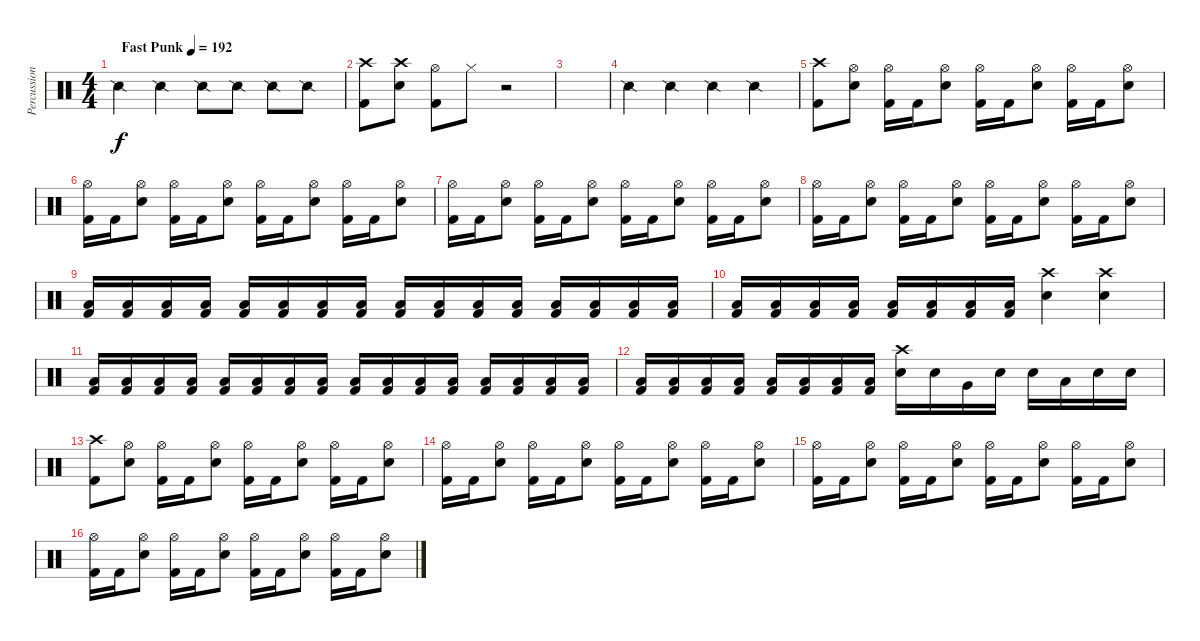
\track ("Percussion" "Percussion") {instrument percussion}
\staff {score}
\articulation defaults
\ts (4 4)
\tempo (192 "Fast Punk")
\clef neutral
\ks c "Snare (side stick) 2".4{dy f} "Snare (side stick) 2".4 "Snare (side stick) 2".8 "Snare (side stick) 2".8 "Snare (side stick) 2".8 "Snare (side stick) 2".8
|
("Crash high (hit)" "Kick (hit) 2").8 ("Crash high (hit)" "Snare (hit) 2").8 ("Hi-Hat (open)" "Kick (hit) 2").8 "Hi-Hat (closed)".8 r.2 |
|
"Snare (side stick) 2".4 "Snare (side stick) 2".4 "Snare (side stick) 2".4 "Snare (side stick) 2".4 |
("Crash high (hit)" "Kick (hit) 2").8 ("Hi-Hat (open)" "Snare (hit) 2").8 ("Hi-Hat (open)" "Kick (hit) 2").16 "Kick (hit) 2".16 ("Hi-Hat (open)" "Snare (hit) 2").8 ("Hi-Hat (open)" "Kick (hit) 2").16 "Kick (hit) 2".16 ("Hi-Hat (open)" "Snare (hit) 2").8 ("Hi-Hat (open)" "Kick (hit) 2").16 "Kick (hit) 2".16 ("Hi-Hat (open)" "Snare (hit) 2").8 |
("Hi-Hat (open)" "Kick (hit) 2").16 "Kick (hit) 2".16 ("Hi-Hat (open)" "Snare (hit) 2").8 ("Hi-Hat (open)" "Kick (hit) 2").16 "Kick (hit) 2".16 ("Hi-Hat (open)" "Snare (hit) 2").8 ("Hi-Hat (open)" "Kick (hit) 2").16 "Kick (hit) 2".16 ("Hi-Hat (open)" "Snare (hit) 2").8 ("Hi-Hat (open)" "Kick (hit) 2").16 "Kick (hit) 2".16 ("Hi-Hat (open)" "Snare (hit) 2").8 |
("Hi-Hat (open)" "Kick (hit) 2").16 "Kick (hit) 2".16 ("Hi-Hat (open)" "Snare (hit) 2").8 ("Hi-Hat (open)" "Kick (hit) 2").16 "Kick (hit) 2".16 ("Hi-Hat (open)" "Snare (hit) 2").8 ("Hi-Hat (open)" "Kick (hit) 2").16 "Kick (hit) 2".16 ("Hi-Hat (open)" "Snare (hit) 2").8 ("Hi-Hat (open)" "Kick (hit) 2").16 "Kick (hit) 2".16 ("Hi-Hat (open)" "Snare (hit) 2").8 |
("Hi-Hat (open)" "Kick (hit) 2").16 "Kick (hit) 2".16 ("Hi-Hat (open)" "Snare (hit) 2").8 ("Hi-Hat (open)" "Kick (hit) 2").16 "Kick (hit) 2".16 ("Hi-Hat (open)" "Snare (hit) 2").8 ("Hi-Hat (open)" "Kick (hit) 2").16 "Kick (hit) 2".16 ("Hi-Hat (open)" "Snare (hit) 2").8 ("Hi-Hat (open)" "Kick (hit) 2").16 "Kick (hit) 2".16 ("Hi-Hat (open)" "Snare (hit) 2").8 |
("Low Floor Tom (hit)" "Kick (hit) 2").16 ("Low Floor Tom (hit)" "Kick (hit) 2").16 ("Low Floor Tom (hit)" "Kick (hit) 2").16 ("Low Tom (hit)" "Kick (hit) 2").16 ("Low Floor Tom (hit)" "Kick (hit) 2").16 ("Low Floor Tom (hit)" "Kick (hit) 2").16 ("Low Floor Tom (hit)" "Kick (hit) 2").16 ("Low Tom (hit)" "Kick (hit) 2").16 ("Low Floor Tom (hit)" "Kick (hit) 2").16 ("Low Floor Tom (hit)" "Kick (hit) 2").16 ("Low Floor Tom (hit)" "Kick (hit) 2").16 ("Low Tom (hit)" "Kick (hit) 2").16 ("Low Floor Tom (hit)" "Kick (hit) 2").16 ("Low Floor Tom (hit)" "Kick (hit) 2").16 ("Low Floor Tom (hit)" "Kick (hit) 2").16 ("Low Tom (hit)" "Kick (hit) 2").16 |
("Low Floor Tom (hit)" "Kick (hit) 2").16 ("Low Floor Tom (hit)" "Kick (hit) 2").16 ("Low Floor Tom (hit)" "Kick (hit) 2").16 ("Low Tom (hit)" "Kick (hit) 2").16 ("Low Floor Tom (hit)" "Kick (hit) 2").16 ("Low Floor Tom (hit)" "Kick (hit) 2").16 ("Low Floor Tom (hit)" "Kick (hit) 2").16 ("Low Tom (hit)" "Kick (hit) 2").16 ("Crash high (hit)" "Snare (hit) 2").4 ("Crash high (hit)" "Snare (hit) 2").4 |
("Low Floor Tom (hit)" "Kick (hit) 2").16 ("Low Floor Tom (hit)" "Kick (hit) 2").16 ("Low Floor Tom (hit)" "Kick (hit) 2").16 ("Low Tom (hit)" "Kick (hit) 2").16 ("Low Floor Tom (hit)" "Kick (hit) 2").16 ("Low Floor Tom (hit)" "Kick (hit) 2").16 ("Low Floor Tom (hit)" "Kick (hit) 2").16 ("Low Tom (hit)" "Kick (hit) 2").16 ("Low Floor Tom (hit)" "Kick (hit) 2").16 ("Low Floor Tom (hit)" "Kick (hit) 2").16 ("Low Floor Tom (hit)" "Kick (hit) 2").16 ("Low Tom (hit)" "Kick (hit) 2").16 ("Low Floor Tom (hit)" "Kick (hit) 2").16 ("Low Floor Tom (hit)" "Kick (hit) 2").16 ("Low Floor Tom (hit)" "Kick (hit) 2").16 ("Low Tom (hit)" "Kick (hit) 2").16 |
("Low Floor Tom (hit)" "Kick (hit) 2").16 ("Low Floor Tom (hit)" "Kick (hit) 2").16 ("Low Floor Tom (hit)" "Kick (hit) 2").16 ("Low Tom (hit)" "Kick (hit) 2").16 ("Low Floor Tom (hit)" "Kick (hit) 2").16 ("Low Floor Tom (hit)" "Kick (hit) 2").16 ("Low Floor Tom (hit)" "Kick (hit) 2").16 ("Low Tom (hit)" "Kick (hit) 2").16 ("Crash high (hit)" "Snare (hit) 2").16 "Snare (hit) 2".16 "Very Low Tom (hit)".16 "Snare (hit) 2".16 "Snare (hit) 2".16 "Low Tom (hit)".16 "Snare (hit) 2".16 "Snare (hit) 2".16 |
("Crash high (hit)" "Kick (hit) 2").8 ("Hi-Hat (open)" "Snare (hit) 2").8 ("Hi-Hat (open)" "Kick (hit) 2").16 "Kick (hit) 2".16 ("Hi-Hat (open)" "Snare (hit) 2").8 ("Hi-Hat (open)" "Kick (hit) 2").16 "Kick (hit) 2".16 ("Hi-Hat (open)" "Snare (hit) 2").8 ("Hi-Hat (open)" "Kick (hit) 2").16 "Kick (hit) 2".16 ("Hi-Hat (open)" "Snare (hit) 2").8 |
("Hi-Hat (open)" "Kick (hit) 2").16 "Kick (hit) 2".16 ("Hi-Hat (open)" "Snare (hit) 2").8 ("Hi-Hat (open)" "Kick (hit) 2").16 "Kick (hit) 2".16 ("Hi-Hat (open)" "Snare (hit) 2").8 ("Hi-Hat (open)" "Kick (hit) 2").16 "Kick (hit) 2".16 ("Hi-Hat (open)" "Snare (hit) 2").8 ("Hi-Hat (open)" "Kick (hit) 2").16 "Kick (hit) 2".16 ("Hi-Hat (open)" "Snare (hit) 2").8 |
("Hi-Hat (open)" "Kick (hit) 2").16 "Kick (hit) 2".16 ("Hi-Hat (open)" "Snare (hit) 2").8 ("Hi-Hat (open)" "Kick (hit) 2").16 "Kick (hit) 2".16 ("Hi-Hat (open)" "Snare (hit) 2").8 ("Hi-Hat (open)" "Kick (hit) 2").16 "Kick (hit) 2".16 ("Hi-Hat (open)" "Snare (hit) 2").8 ("Hi-Hat (open)" "Kick (hit) 2").16 "Kick (hit) 2".16 ("Hi-Hat (open)" "Snare (hit) 2").8 |
("Hi-Hat (open)" "Kick (hit) 2").16 "Kick (hit) 2".16 ("Hi-Hat (open)" "Snare (hit) 2").8 ("Hi-Hat (open)" "Kick (hit) 2").16 "Kick (hit) 2".16 ("Hi-Hat (open)" "Snare (hit) 2").8 ("Hi-Hat (open)" "Kick (hit) 2").16 "Kick (hit) 2".16 ("Hi-Hat (open)" "Snare (hit) 2").8 ("Hi-Hat (open)" "Kick (hit) 2").16 "Kick (hit) 2".16 ("Hi-Hat (open)" "Snare (hit) 2").8
